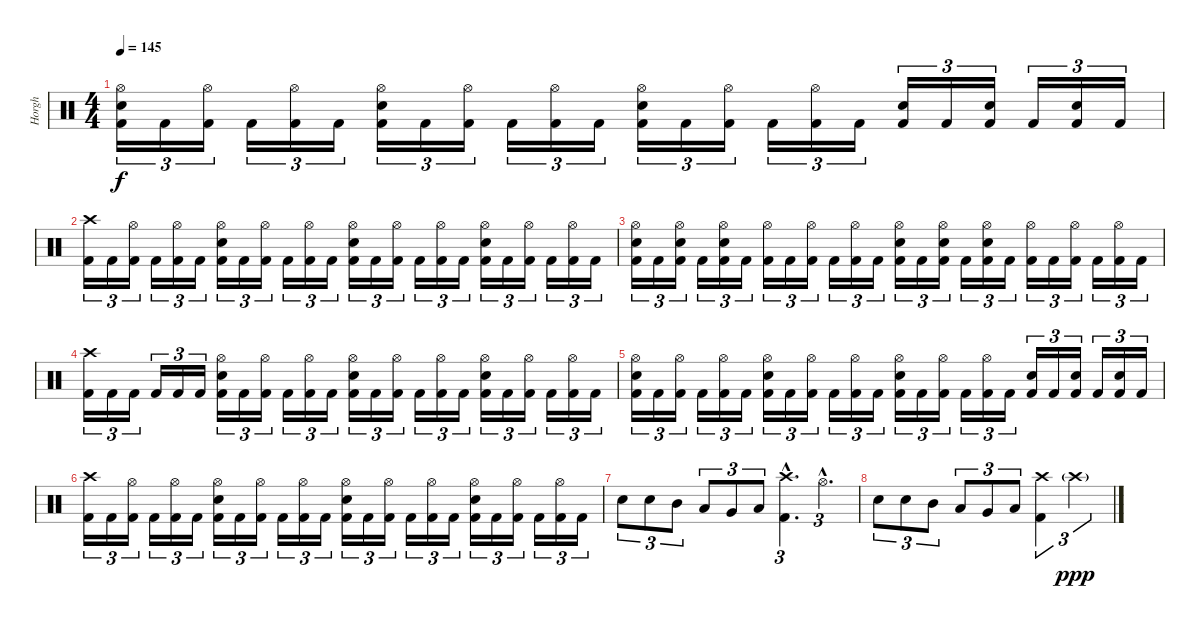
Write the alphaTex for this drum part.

\track ("Horgh" "Horgh") {instrument percussion}
\staff {score}
\articulation defaults
\ts (4 4)
\tempo 145
\clef neutral
\ks c
("Hi-Hat (open)" "Electric Snare (hit)" "Kick (hit) 2").16{tu (3 2) dy f} "Kick (hit) 2".16{tu (3 2)} ("Hi-Hat (open)" "Kick (hit) 2").16{tu (3 2)} "Kick (hit) 2".16{tu (3 2)} ("Hi-Hat (open)" "Kick (hit) 2").16{tu (3 2)} "Kick (hit) 2".16{tu (3 2)} ("Hi-Hat (open)" "Electric Snare (hit)" "Kick (hit) 2").16{tu (3 2)} "Kick (hit) 2".16{tu (3 2)} ("Hi-Hat (open)" "Kick (hit) 2").16{tu (3 2)} "Kick (hit) 2".16{tu (3 2)} ("Hi-Hat (open)" "Kick (hit) 2").16{tu (3 2)} "Kick (hit) 2".16{tu (3 2)} ("Hi-Hat (open)" "Electric Snare (hit)" "Kick (hit) 2").16{tu (3 2)} "Kick (hit) 2".16{tu (3 2)} ("Hi-Hat (open)" "Kick (hit) 2").16{tu (3 2)} "Kick (hit) 2".16{tu (3 2)} ("Hi-Hat (open)" "Kick (hit) 2").16{tu (3 2)} "Kick (hit) 2".16{tu (3 2)} ("Electric Snare (hit)" "Kick (hit) 2").16{tu (3 2)} "Kick (hit) 2".16{tu (3 2)} ("Electric Snare (hit)" "Kick (hit) 2").16{tu (3 2)} "Kick (hit) 2".16{tu (3 2)} ("Electric Snare (hit)" "Kick (hit) 2").16{tu (3 2)} "Kick (hit) 2".16{tu (3 2)} |
("Crash high (hit)" "Kick (hit) 2").16{tu (3 2)} "Kick (hit) 2".16{tu (3 2)} ("Hi-Hat (open)" "Kick (hit) 2").16{tu (3 2)} "Kick (hit) 2".16{tu (3 2)} ("Hi-Hat (open)" "Kick (hit) 2").16{tu (3 2)} "Kick (hit) 2".16{tu (3 2)} ("Hi-Hat (open)" "Electric Snare (hit)" "Kick (hit) 2").16{tu (3 2)} "Kick (hit) 2".16{tu (3 2)} ("Hi-Hat (open)" "Kick (hit) 2").16{tu (3 2)} "Kick (hit) 2".16{tu (3 2)} ("Hi-Hat (open)" "Kick (hit) 2").16{tu (3 2)} "Kick (hit) 2".16{tu (3 2)} ("Hi-Hat (open)" "Electric Snare (hit)" "Kick (hit) 2").16{tu (3 2)} "Kick (hit) 2".16{tu (3 2)} ("Hi-Hat (open)" "Kick (hit) 2").16{tu (3 2)} "Kick (hit) 2".16{tu (3 2)} ("Hi-Hat (open)" "Kick (hit) 2").16{tu (3 2)} "Kick (hit) 2".16{tu (3 2)} ("Hi-Hat (open)" "Electric Snare (hit)" "Kick (hit) 2").16{tu (3 2)} "Kick (hit) 2".16{tu (3 2)} ("Hi-Hat (open)" "Kick (hit) 2").16{tu (3 2)} "Kick (hit) 2".16{tu (3 2)} ("Hi-Hat (open)" "Kick (hit) 2").16{tu (3 2)} "Kick (hit) 2".16{tu (3 2)} |
("Hi-Hat (open)" "Electric Snare (hit)" "Kick (hit) 2").16{tu (3 2)} "Kick (hit) 2".16{tu (3 2)} ("Hi-Hat (open)" "Electric Snare (hit)" "Kick (hit) 2").16{tu (3 2)} "Kick (hit) 2".16{tu (3 2)} ("Hi-Hat (open)" "Electric Snare (hit)" "Kick (hit) 2").16{tu (3 2)} "Kick (hit) 2".16{tu (3 2)} ("Hi-Hat (open)" "Kick (hit) 2").16{tu (3 2)} "Kick (hit) 2".16{tu (3 2)} ("Hi-Hat (open)" "Kick (hit) 2").16{tu (3 2)} "Kick (hit) 2".16{tu (3 2)} ("Hi-Hat (open)" "Kick (hit) 2").16{tu (3 2)} "Kick (hit) 2".16{tu (3 2)} ("Hi-Hat (open)" "Electric Snare (hit)" "Kick (hit) 2").16{tu (3 2)} "Kick (hit) 2".16{tu (3 2)} ("Hi-Hat (open)" "Electric Snare (hit)" "Kick (hit) 2").16{tu (3 2)} "Kick (hit) 2".16{tu (3 2)} ("Hi-Hat (open)" "Electric Snare (hit)" "Kick (hit) 2").16{tu (3 2)} "Kick (hit) 2".16{tu (3 2)} ("Hi-Hat (open)" "Kick (hit) 2").16{tu (3 2)} "Kick (hit) 2".16{tu (3 2)} ("Hi-Hat (open)" "Kick (hit) 2").16{tu (3 2)} "Kick (hit) 2".16{tu (3 2)} ("Hi-Hat (open)" "Kick (hit) 2").16{tu (3 2)} "Kick (hit) 2".16{tu (3 2)} |
("Crash high (hit)" "Kick (hit) 2").16{tu (3 2)} "Kick (hit) 2".16{tu (3 2)} "Kick (hit) 2".16{tu (3 2)} "Kick (hit) 2".16{tu (3 2)} "Kick (hit) 2".16{tu (3 2)} "Kick (hit) 2".16{tu (3 2)} ("Hi-Hat (open)" "Electric Snare (hit)" "Kick (hit) 2").16{tu (3 2)} "Kick (hit) 2".16{tu (3 2)} ("Hi-Hat (open)" "Kick (hit) 2").16{tu (3 2)} "Kick (hit) 2".16{tu (3 2)} ("Hi-Hat (open)" "Kick (hit) 2").16{tu (3 2)} "Kick (hit) 2".16{tu (3 2)} ("Hi-Hat (open)" "Electric Snare (hit)" "Kick (hit) 2").16{tu (3 2)} "Kick (hit) 2".16{tu (3 2)} ("Hi-Hat (open)" "Kick (hit) 2").16{tu (3 2)} "Kick (hit) 2".16{tu (3 2)} ("Hi-Hat (open)" "Kick (hit) 2").16{tu (3 2)} "Kick (hit) 2".16{tu (3 2)} ("Hi-Hat (open)" "Electric Snare (hit)" "Kick (hit) 2").16{tu (3 2)} "Kick (hit) 2".16{tu (3 2)} ("Hi-Hat (open)" "Kick (hit) 2").16{tu (3 2)} "Kick (hit) 2".16{tu (3 2)} ("Hi-Hat (open)" "Kick (hit) 2").16{tu (3 2)} "Kick (hit) 2".16{tu (3 2)} |
("Hi-Hat (open)" "Electric Snare (hit)" "Kick (hit) 2").16{tu (3 2)} "Kick (hit) 2".16{tu (3 2)} ("Hi-Hat (open)" "Kick (hit) 2").16{tu (3 2)} "Kick (hit) 2".16{tu (3 2)} ("Hi-Hat (open)" "Kick (hit) 2").16{tu (3 2)} "Kick (hit) 2".16{tu (3 2)} ("Hi-Hat (open)" "Electric Snare (hit)" "Kick (hit) 2").16{tu (3 2)} "Kick (hit) 2".16{tu (3 2)} ("Hi-Hat (open)" "Kick (hit) 2").16{tu (3 2)} "Kick (hit) 2".16{tu (3 2)} ("Hi-Hat (open)" "Kick (hit) 2").16{tu (3 2)} "Kick (hit) 2".16{tu (3 2)} ("Hi-Hat (open)" "Electric Snare (hit)" "Kick (hit) 2").16{tu (3 2)} "Kick (hit) 2".16{tu (3 2)} ("Hi-Hat (open)" "Kick (hit) 2").16{tu (3 2)} "Kick (hit) 2".16{tu (3 2)} ("Hi-Hat (open)" "Kick (hit) 2").16{tu (3 2)} "Kick (hit) 2".16{tu (3 2)} ("Electric Snare (hit)" "Kick (hit) 2").16{tu (3 2)} "Kick (hit) 2".16{tu (3 2)} ("Electric Snare (hit)" "Kick (hit) 2").16{tu (3 2)} "Kick (hit) 2".16{tu (3 2)} ("Electric Snare (hit)" "Kick (hit) 2").16{tu (3 2)} "Kick (hit) 2".16{tu (3 2)} |
("Crash high (hit)" "Kick (hit) 2").16{tu (3 2)} "Kick (hit) 2".16{tu (3 2)} ("Hi-Hat (open)" "Kick (hit) 2").16{tu (3 2)} "Kick (hit) 2".16{tu (3 2)} ("Hi-Hat (open)" "Kick (hit) 2").16{tu (3 2)} "Kick (hit) 2".16{tu (3 2)} ("Hi-Hat (open)" "Electric Snare (hit)" "Kick (hit) 2").16{tu (3 2)} "Kick (hit) 2".16{tu (3 2)} ("Hi-Hat (open)" "Kick (hit) 2").16{tu (3 2)} "Kick (hit) 2".16{tu (3 2)} ("Hi-Hat (open)" "Kick (hit) 2").16{tu (3 2)} "Kick (hit) 2".16{tu (3 2)} ("Hi-Hat (open)" "Electric Snare (hit)" "Kick (hit) 2").16{tu (3 2)} "Kick (hit) 2".16{tu (3 2)} ("Hi-Hat (open)" "Kick (hit) 2").16{tu (3 2)} "Kick (hit) 2".16{tu (3 2)} ("Hi-Hat (open)" "Kick (hit) 2").16{tu (3 2)} "Kick (hit) 2".16{tu (3 2)} ("Hi-Hat (open)" "Electric Snare (hit)" "Kick (hit) 2").16{tu (3 2)} "Kick (hit) 2".16{tu (3 2)} ("Hi-Hat (open)" "Kick (hit) 2").16{tu (3 2)} "Kick (hit) 2".16{tu (3 2)} ("Hi-Hat (open)" "Kick (hit) 2").16{tu (3 2)} "Kick (hit) 2".16{tu (3 2)} |
"Electric Snare (hit)".8{tu (3 2)} "Electric Snare (hit)".8{tu (3 2)} "Mid Tom (hit)".8{tu (3 2)} "Low Tom (hit)".8{tu (3 2)} "Very Low Tom (hit)".8{tu (3 2)} "Low Floor Tom (hit)".8{tu (3 2)} ("Crash high (hit)"{hac} "Kick (hit) 2"{hac}).4{d tu (3 2)} "Hi-Hat (open)"{hac}.4{d tu (3 2)} |
"Electric Snare (hit)".8{tu (3 2)} "Electric Snare (hit)".8{tu (3 2)} "Mid Tom (hit)".8{tu (3 2)} "Low Tom (hit)".8{tu (3 2)} "Very Low Tom (hit)".8{tu (3 2)} "Low Floor Tom (hit)".8{tu (3 2)} ("Crash high (hit)" "Kick (hit) 2").4{tu (3 2)} "Crash high (hit)"{g}.2{tu (3 2) dy ppp}
